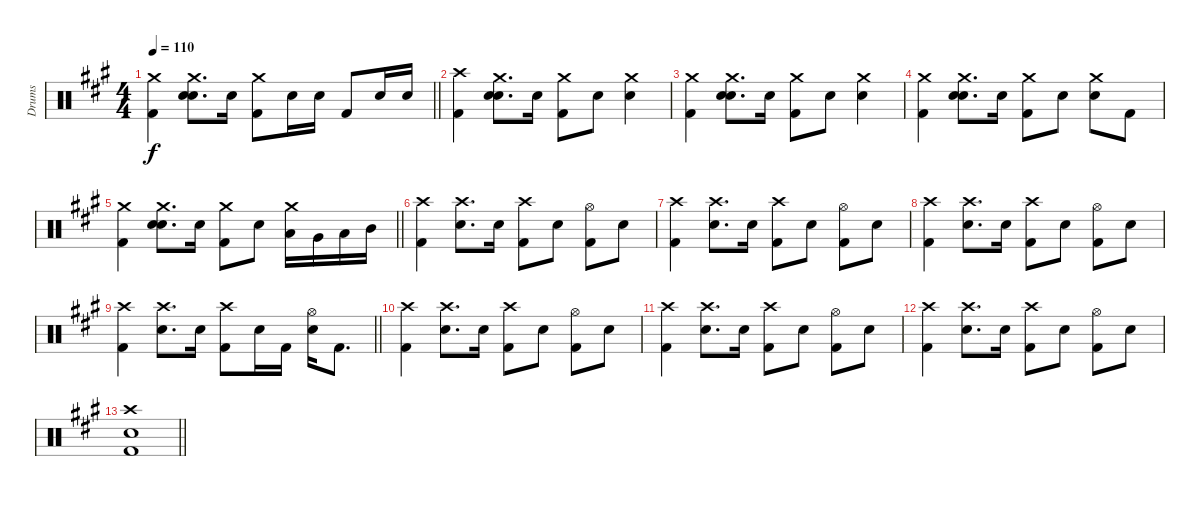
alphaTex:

\track ("Drums" "Drums") {instrument percussion}
\staff {score}
\articulation defaults
\ts (4 4)
\tempo 110
\clef neutral
\barLineRight lightlight
\ks f#minor
("Crash medium (hit)" "Kick (hit) 2").4{dy f} ("Crash medium (hit)" "Snare (hit) 2" "Snare (hit) 2").8{d} "Snare (hit) 2".16 ("Crash medium (hit)" "Kick (hit) 2").8 "Snare (hit) 2".16 "Snare (hit) 2".16 "Kick (hit) 2".8 "Snare (hit) 2".16 "Snare (hit) 2".16 |
\section ("" "")
("Crash high (hit)" "Kick (hit) 2").4 ("Crash medium (hit)" "Snare (hit) 2" "Snare (hit) 2").8{d} "Snare (hit) 2".16 ("Crash medium (hit)" "Kick (hit) 2").8 "Snare (hit) 2".8 ("Crash medium (hit)" "Snare (hit) 2").4 |
("Crash medium (hit)" "Kick (hit) 2").4 ("Crash medium (hit)" "Snare (hit) 2" "Snare (hit) 2").8{d} "Snare (hit) 2".16 ("Crash medium (hit)" "Kick (hit) 2").8 "Snare (hit) 2".8 ("Crash medium (hit)" "Snare (hit) 2").4 |
("Crash medium (hit)" "Kick (hit) 2").4 ("Crash medium (hit)" "Snare (hit) 2" "Snare (hit) 2").8{d} "Snare (hit) 2".16 ("Crash medium (hit)" "Kick (hit) 2").8 "Snare (hit) 2".8 ("Crash medium (hit)" "Snare (hit) 2").8 "Kick (hit) 2".8 |
\barLineRight lightlight
("Crash medium (hit)" "Kick (hit) 2").4 ("Crash medium (hit)" "Snare (hit) 2" "Snare (hit) 2").8{d} "Snare (hit) 2".16 ("Crash medium (hit)" "Kick (hit) 2").8 "Snare (hit) 2".8 ("Crash medium (hit)" "Low Tom (hit)").16 "Very Low Tom (hit)".16 "Low Tom (hit)".16 "Mid Tom (hit)".16 |
\section ("" "")
("Crash high (hit)" "Kick (hit) 2").4 ("Crash high (hit)" "Snare (hit) 2").8{d} "Snare (hit) 2".16 ("Crash high (hit)" "Kick (hit) 2").8 "Snare (hit) 2".8 ("Hi-Hat (open)" "Kick (hit) 2").8 "Snare (hit) 2".8 |
("Crash high (hit)" "Kick (hit) 2").4 ("Crash high (hit)" "Snare (hit) 2").8{d} "Snare (hit) 2".16 ("Crash high (hit)" "Kick (hit) 2").8 "Snare (hit) 2".8 ("Hi-Hat (open)" "Kick (hit) 2").8 "Snare (hit) 2".8 |
("Crash high (hit)" "Kick (hit) 2").4 ("Crash high (hit)" "Snare (hit) 2").8{d} "Snare (hit) 2".16 ("Crash high (hit)" "Kick (hit) 2").8 "Snare (hit) 2".8 ("Hi-Hat (open)" "Kick (hit) 2").8 "Snare (hit) 2".8 |
\barLineRight lightlight
("Crash high (hit)" "Kick (hit) 2").4 ("Crash high (hit)" "Snare (hit) 2").8{d} "Snare (hit) 2".16 ("Crash high (hit)" "Kick (hit) 2").8 "Snare (hit) 2".16 "Kick (hit) 2".16 ("Hi-Hat (open)" "Snare (hit) 2").16 "Kick (hit) 2".8{d} |
\section ("" "")
("Crash high (hit)" "Kick (hit) 2").4 ("Crash high (hit)" "Snare (hit) 2").8{d} "Snare (hit) 2".16 ("Crash high (hit)" "Kick (hit) 2").8 "Snare (hit) 2".8 ("Hi-Hat (open)" "Kick (hit) 2").8 "Snare (hit) 2".8 |
("Crash high (hit)" "Kick (hit) 2").4 ("Crash high (hit)" "Snare (hit) 2").8{d} "Snare (hit) 2".16 ("Crash high (hit)" "Kick (hit) 2").8 "Snare (hit) 2".8 ("Hi-Hat (open)" "Kick (hit) 2").8 "Snare (hit) 2".8 |
("Crash high (hit)" "Kick (hit) 2").4 ("Crash high (hit)" "Snare (hit) 2").8{d} "Snare (hit) 2".16 ("Crash high (hit)" "Kick (hit) 2").8 "Snare (hit) 2".8 ("Hi-Hat (open)" "Kick (hit) 2").8 "Snare (hit) 2".8 |
\barLineRight lightlight
("Crash high (hit)" "Snare (hit) 2" "Kick (hit) 2").1
